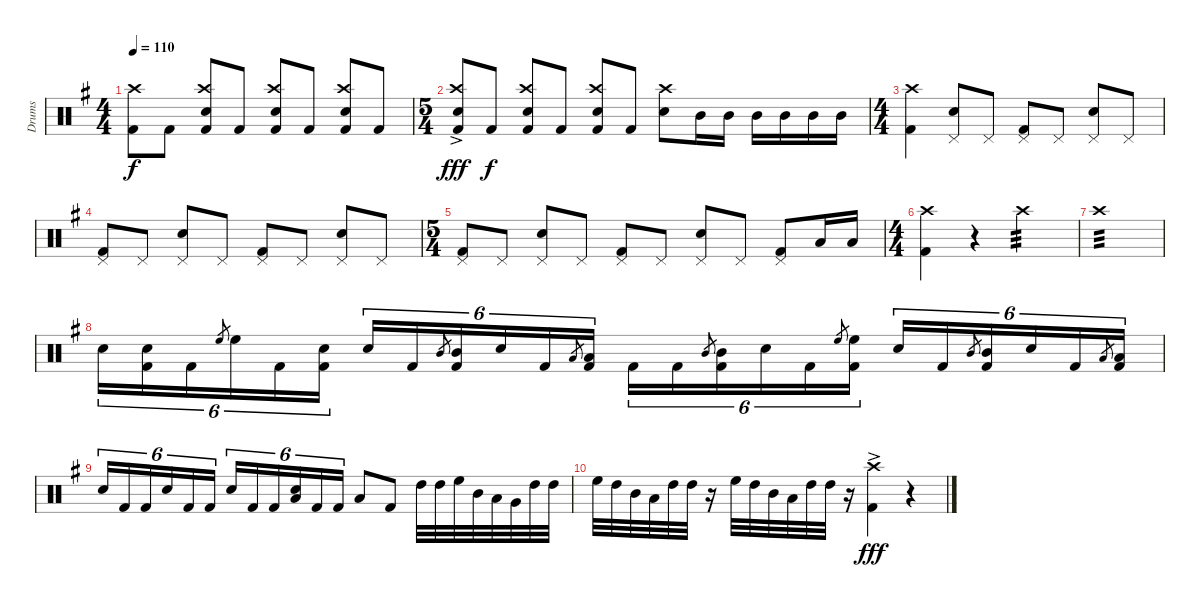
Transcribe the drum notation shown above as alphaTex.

\track ("Drums" "Drums") {instrument percussion}
\staff {score}
\articulation defaults
\ts (4 4)
\tempo 110
\clef neutral
\ks g
("Kick (hit) 2" "Crash high (hit)").8{dy f} "Kick (hit) 2".8 ("Kick (hit) 2" "Snare (hit) 2" "Crash high (hit)").8 "Kick (hit) 2".8 ("Kick (hit) 2" "Snare (hit) 2" "Crash high (hit)").8 "Kick (hit) 2".8 ("Kick (hit) 2" "Snare (hit) 2" "Crash high (hit)").8 "Kick (hit) 2".8 |
\ts (5 4)
("Kick (hit) 2" "Snare (hit) 2" "Crash high (hit)"{ac}).8{dy fff} "Kick (hit) 2".8{dy f} ("Kick (hit) 2" "Snare (hit) 2" "Crash high (hit)").8 "Kick (hit) 2".8 ("Kick (hit) 2" "Snare (hit) 2" "Crash high (hit)").8 "Kick (hit) 2".8 ("Snare (hit) 2" "Crash high (hit)").8 "Mid Tom (hit)".16 "Mid Tom (hit)".16 "Mid Tom (hit)".16 "Mid Tom (hit)".16 "Mid Tom (hit)".16 "Mid Tom (hit)".16 |
\ts (4 4)
("Kick (hit) 2" "Crash high (hit)").4 ("Snare (hit) 2" "Pedal Hi-Hat (hit)").8 "Pedal Hi-Hat (hit)".8 ("Kick (hit) 2" "Pedal Hi-Hat (hit)").8 "Pedal Hi-Hat (hit)".8 ("Snare (hit) 2" "Pedal Hi-Hat (hit)").8 "Pedal Hi-Hat (hit)".8 |
("Kick (hit) 2" "Pedal Hi-Hat (hit)").8 "Pedal Hi-Hat (hit)".8 ("Snare (hit) 2" "Pedal Hi-Hat (hit)").8 "Pedal Hi-Hat (hit)".8 ("Kick (hit) 2" "Pedal Hi-Hat (hit)").8 "Pedal Hi-Hat (hit)".8 ("Snare (hit) 2" "Pedal Hi-Hat (hit)").8 "Pedal Hi-Hat (hit)".8 |
\ts (5 4)
("Kick (hit) 2" "Pedal Hi-Hat (hit)").8 "Pedal Hi-Hat (hit)".8 ("Snare (hit) 2" "Pedal Hi-Hat (hit)").8 "Pedal Hi-Hat (hit)".8 ("Kick (hit) 2" "Pedal Hi-Hat (hit)").8 "Pedal Hi-Hat (hit)".8 ("Snare (hit) 2" "Pedal Hi-Hat (hit)").8 "Pedal Hi-Hat (hit)".8 ("Kick (hit) 2" "Pedal Hi-Hat (hit)").8 "Low Floor Tom (hit)".16 "Low Floor Tom (hit)".16 |
\ts (4 4)
("Kick (hit) 2" "Crash high (hit)").4 r.4 "Crash high (hit)".2{tp 3} |
"Crash high (hit)".1{tp 3} |
"Snare (hit) 2".16{tu (6 4)} ("Kick (hit) 2" "Snare (hit) 2").16{tu (6 4)} "Kick (hit) 2".16{tu (6 4)} "High Floor Tom (hit)".8{gr} "High Floor Tom (hit)".16{tu (6 4)} "Kick (hit) 2".16{tu (6 4)} ("Kick (hit) 2" "Snare (hit) 2").16{tu (6 4)} "Snare (hit) 2".16{tu (6 4)} "Kick (hit) 2".16{tu (6 4)} "Mid Tom (hit)".8{gr} ("Kick (hit) 2" "Mid Tom (hit)").16{tu (6 4)} "Snare (hit) 2".16{tu (6 4)} "Kick (hit) 2".16{tu (6 4)} "Low Tom (hit)".8{gr} ("Kick (hit) 2" "Low Tom (hit)").16{tu (6 4)} "Kick (hit) 2".16{tu (6 4)} "Kick (hit) 2".16{tu (6 4)} "Mid Tom (hit)".8{gr} ("Kick (hit) 2" "Mid Tom (hit)").16{tu (6 4)} "Snare (hit) 2".16{tu (6 4)} "Kick (hit) 2".16{tu (6 4)} "High Floor Tom (hit)".8{gr} ("Kick (hit) 2" "High Floor Tom (hit)").16{tu (6 4)} "Snare (hit) 2".16{tu (6 4)} "Kick (hit) 2".16{tu (6 4)} "Mid Tom (hit)".8{gr} ("Kick (hit) 2" "Mid Tom (hit)").16{tu (6 4)} "Snare (hit) 2".16{tu (6 4)} "Kick (hit) 2".16{tu (6 4)} "Low Tom (hit)".8{gr} ("Kick (hit) 2" "Low Tom (hit)").16{tu (6 4)} |
"Snare (hit) 2".16{tu (6 4)} "Kick (hit) 2".16{tu (6 4)} "Kick (hit) 2".16{tu (6 4)} "Snare (hit) 2".16{tu (6 4)} "Kick (hit) 2".16{tu (6 4)} "Kick (hit) 2".16{tu (6 4)} "Snare (hit) 2".16{tu (6 4)} "Kick (hit) 2".16{tu (6 4)} "Kick (hit) 2".16{tu (6 4)} ("Snare (hit) 2" "Low Floor Tom (hit)").16{tu (6 4)} "Kick (hit) 2".16{tu (6 4)} "Kick (hit) 2".16{tu (6 4)} "Low Tom (hit)".8 "Kick (hit) 2".8 "High Tom (hit)".32 "High Tom (hit)".32 "High Floor Tom (hit)".32 "Mid Tom (hit)".32 "Low Tom (hit)".32 "Very Low Tom (hit)".32 "High Tom (hit)".32 "High Tom (hit)".32 |
"High Floor Tom (hit)".32 "High Tom (hit)".32 "Mid Tom (hit)".32 "Low Tom (hit)".32 "High Tom (hit)".32 "High Tom (hit)".32 r.16 "High Floor Tom (hit)".32 "High Tom (hit)".32 "Mid Tom (hit)".32 "Low Tom (hit)".32 "High Tom (hit)".32 "High Tom (hit)".32 r.16 ("Kick (hit) 2" "Crash high (hit)"{ac}).4{dy fff} r.4
